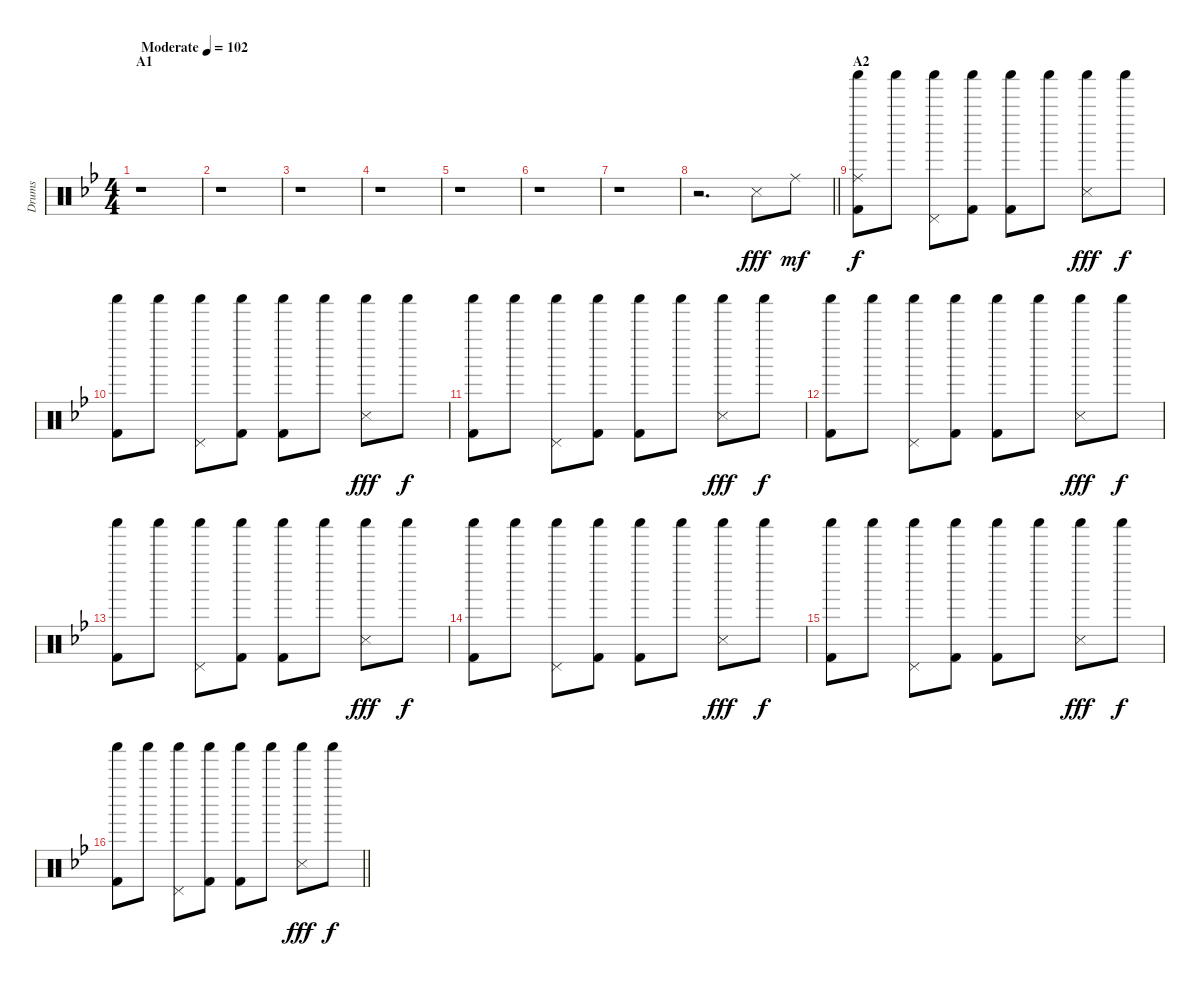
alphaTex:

\track ("Drums" "Drums") {instrument percussion}
\staff {score}
\articulation defaults
\ts (4 4)
\section ("" "A1")
\tempo (102 "Moderate")
\clef neutral
\ks bb
r.1{dy fff} |
r.1 |
r.1 |
r.1 |
r.1 |
r.1 |
r.1 |
\barLineRight lightlight
r.2{d} "Snare (side stick) 3".8 "Ride (middle)".8{dy mf} |
\section ("" "A2")
("Shaker (hit)" "Ride (middle)" "Kick (hit) 2").8{dy f} "Shaker (hit)".8 ("Shaker (hit)" "Pedal Hi-Hat (hit)").8 ("Shaker (hit)" "Kick (hit) 2").8 ("Shaker (hit)" "Kick (hit) 2").8 "Shaker (hit)".8 ("Shaker (hit)" "Snare (side stick) 3").8{dy fff} "Shaker (hit)".8{dy f} |
("Shaker (hit)" "Kick (hit) 2").8 "Shaker (hit)".8 ("Shaker (hit)" "Pedal Hi-Hat (hit)").8 ("Shaker (hit)" "Kick (hit) 2").8 ("Shaker (hit)" "Kick (hit) 2").8 "Shaker (hit)".8 ("Shaker (hit)" "Snare (side stick) 3").8{dy fff} "Shaker (hit)".8{dy f} |
("Shaker (hit)" "Kick (hit) 2").8 "Shaker (hit)".8 ("Shaker (hit)" "Pedal Hi-Hat (hit)").8 ("Shaker (hit)" "Kick (hit) 2").8 ("Shaker (hit)" "Kick (hit) 2").8 "Shaker (hit)".8 ("Shaker (hit)" "Snare (side stick) 3").8{dy fff} "Shaker (hit)".8{dy f} |
("Shaker (hit)" "Kick (hit) 2").8 "Shaker (hit)".8 ("Shaker (hit)" "Pedal Hi-Hat (hit)").8 ("Shaker (hit)" "Kick (hit) 2").8 ("Shaker (hit)" "Kick (hit) 2").8 "Shaker (hit)".8 ("Shaker (hit)" "Snare (side stick) 3").8{dy fff} "Shaker (hit)".8{dy f} |
("Shaker (hit)" "Kick (hit) 2").8 "Shaker (hit)".8 ("Shaker (hit)" "Pedal Hi-Hat (hit)").8 ("Shaker (hit)" "Kick (hit) 2").8 ("Shaker (hit)" "Kick (hit) 2").8 "Shaker (hit)".8 ("Shaker (hit)" "Snare (side stick) 3").8{dy fff} "Shaker (hit)".8{dy f} |
("Shaker (hit)" "Kick (hit) 2").8 "Shaker (hit)".8 ("Shaker (hit)" "Pedal Hi-Hat (hit)").8 ("Shaker (hit)" "Kick (hit) 2").8 ("Shaker (hit)" "Kick (hit) 2").8 "Shaker (hit)".8 ("Shaker (hit)" "Snare (side stick) 3").8{dy fff} "Shaker (hit)".8{dy f} |
("Shaker (hit)" "Kick (hit) 2").8 "Shaker (hit)".8 ("Shaker (hit)" "Pedal Hi-Hat (hit)").8 ("Shaker (hit)" "Kick (hit) 2").8 ("Shaker (hit)" "Kick (hit) 2").8 "Shaker (hit)".8 ("Shaker (hit)" "Snare (side stick) 3").8{dy fff} "Shaker (hit)".8{dy f} |
\barLineRight lightlight
("Shaker (hit)" "Kick (hit) 2").8 "Shaker (hit)".8 ("Shaker (hit)" "Pedal Hi-Hat (hit)").8 ("Shaker (hit)" "Kick (hit) 2").8 ("Shaker (hit)" "Kick (hit) 2").8 "Shaker (hit)".8 ("Shaker (hit)" "Snare (side stick) 3").8{dy fff} "Shaker (hit)".8{dy f}
